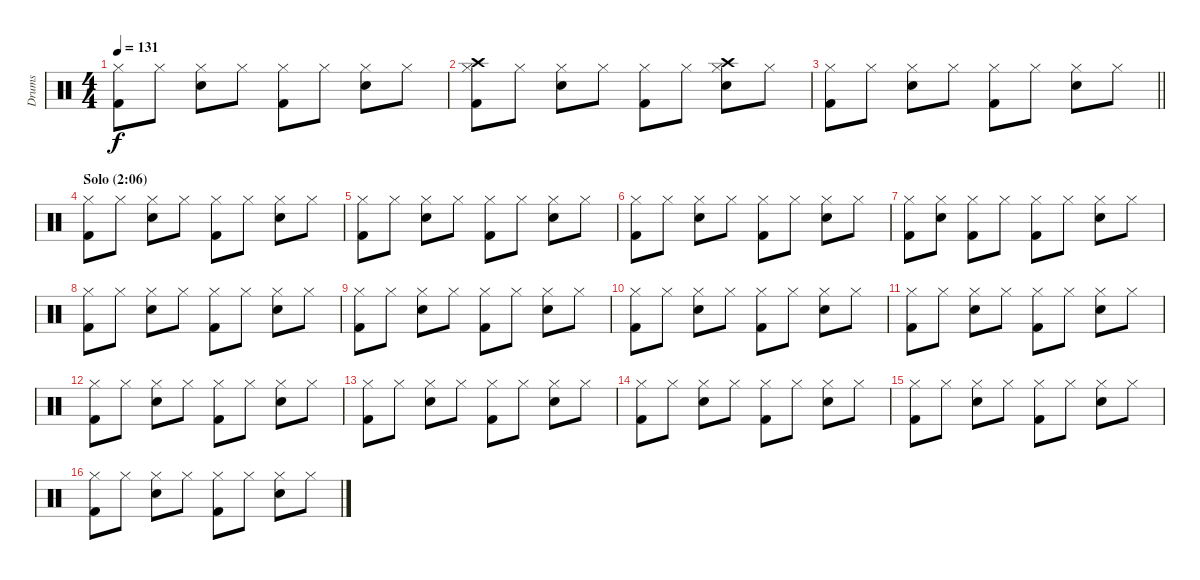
\track ("Drums" "Drums") {instrument percussion}
\staff {score}
\articulation defaults
\ts (4 4)
\tempo 131
\clef neutral
\ks c
("Kick (hit) 2" "Hi-Hat (closed)").8{dy f} "Hi-Hat (closed)".8 ("Hi-Hat (closed)" "Snare (hit) 2").8 "Hi-Hat (closed)".8 ("Hi-Hat (closed)" "Kick (hit) 2").8 "Hi-Hat (closed)".8 ("Hi-Hat (closed)" "Snare (hit) 2").8 "Hi-Hat (closed)".8 |
("Kick (hit) 2" "Hi-Hat (closed)" "Crash high (hit)").8 "Hi-Hat (closed)".8 ("Hi-Hat (closed)" "Snare (hit) 2").8 "Hi-Hat (closed)".8 ("Hi-Hat (closed)" "Kick (hit) 2").8 "Hi-Hat (closed)".8 ("Hi-Hat (closed)" "Snare (hit) 2" "Crash high (hit)").8 "Hi-Hat (closed)".8 |
\barLineRight lightlight
("Kick (hit) 2" "Hi-Hat (closed)").8 "Hi-Hat (closed)".8 ("Hi-Hat (closed)" "Snare (hit) 2").8 "Hi-Hat (closed)".8 ("Hi-Hat (closed)" "Kick (hit) 2").8 "Hi-Hat (closed)".8 ("Hi-Hat (closed)" "Snare (hit) 2").8 "Hi-Hat (closed)".8 |
\section ("" "Solo (2:06)")
("Kick (hit) 2" "Hi-Hat (closed)").8 "Hi-Hat (closed)".8 ("Hi-Hat (closed)" "Snare (hit) 2").8 "Hi-Hat (closed)".8 ("Hi-Hat (closed)" "Kick (hit) 2").8 "Hi-Hat (closed)".8 ("Hi-Hat (closed)" "Snare (hit) 2").8 "Hi-Hat (closed)".8 |
("Kick (hit) 2" "Hi-Hat (closed)").8 "Hi-Hat (closed)".8 ("Hi-Hat (closed)" "Snare (hit) 2").8 "Hi-Hat (closed)".8 ("Hi-Hat (closed)" "Kick (hit) 2").8 "Hi-Hat (closed)".8 ("Hi-Hat (closed)" "Snare (hit) 2").8 "Hi-Hat (closed)".8 |
("Kick (hit) 2" "Hi-Hat (closed)").8 "Hi-Hat (closed)".8 ("Hi-Hat (closed)" "Snare (hit) 2").8 "Hi-Hat (closed)".8 ("Hi-Hat (closed)" "Kick (hit) 2").8 "Hi-Hat (closed)".8 ("Hi-Hat (closed)" "Snare (hit) 2").8 "Hi-Hat (closed)".8 |
("Kick (hit) 2" "Hi-Hat (closed)").8 ("Hi-Hat (closed)" "Snare (hit) 2").8 ("Hi-Hat (closed)" "Kick (hit) 2").8 "Hi-Hat (closed)".8 ("Hi-Hat (closed)" "Kick (hit) 2").8 "Hi-Hat (closed)".8 ("Hi-Hat (closed)" "Snare (hit) 2").8 "Hi-Hat (closed)".8 |
("Kick (hit) 2" "Hi-Hat (closed)").8 "Hi-Hat (closed)".8 ("Hi-Hat (closed)" "Snare (hit) 2").8 "Hi-Hat (closed)".8 ("Hi-Hat (closed)" "Kick (hit) 2").8 "Hi-Hat (closed)".8 ("Hi-Hat (closed)" "Snare (hit) 2").8 "Hi-Hat (closed)".8 |
("Kick (hit) 2" "Hi-Hat (closed)").8 "Hi-Hat (closed)".8 ("Hi-Hat (closed)" "Snare (hit) 2").8 "Hi-Hat (closed)".8 ("Hi-Hat (closed)" "Kick (hit) 2").8 "Hi-Hat (closed)".8 ("Hi-Hat (closed)" "Snare (hit) 2").8 "Hi-Hat (closed)".8 |
("Kick (hit) 2" "Hi-Hat (closed)").8 "Hi-Hat (closed)".8 ("Hi-Hat (closed)" "Snare (hit) 2").8 "Hi-Hat (closed)".8 ("Hi-Hat (closed)" "Kick (hit) 2").8 "Hi-Hat (closed)".8 ("Hi-Hat (closed)" "Snare (hit) 2").8 "Hi-Hat (closed)".8 |
("Kick (hit) 2" "Hi-Hat (closed)").8 "Hi-Hat (closed)".8 ("Hi-Hat (closed)" "Snare (hit) 2").8 "Hi-Hat (closed)".8 ("Hi-Hat (closed)" "Kick (hit) 2").8 "Hi-Hat (closed)".8 ("Hi-Hat (closed)" "Snare (hit) 2").8 "Hi-Hat (closed)".8 |
("Kick (hit) 2" "Hi-Hat (closed)").8 "Hi-Hat (closed)".8 ("Hi-Hat (closed)" "Snare (hit) 2").8 "Hi-Hat (closed)".8 ("Hi-Hat (closed)" "Kick (hit) 2").8 "Hi-Hat (closed)".8 ("Hi-Hat (closed)" "Snare (hit) 2").8 "Hi-Hat (closed)".8 |
("Kick (hit) 2" "Hi-Hat (closed)").8 "Hi-Hat (closed)".8 ("Hi-Hat (closed)" "Snare (hit) 2").8 "Hi-Hat (closed)".8 ("Hi-Hat (closed)" "Kick (hit) 2").8 "Hi-Hat (closed)".8 ("Hi-Hat (closed)" "Snare (hit) 2").8 "Hi-Hat (closed)".8 |
("Kick (hit) 2" "Hi-Hat (closed)").8 "Hi-Hat (closed)".8 ("Hi-Hat (closed)" "Snare (hit) 2").8 "Hi-Hat (closed)".8 ("Hi-Hat (closed)" "Kick (hit) 2").8 "Hi-Hat (closed)".8 ("Hi-Hat (closed)" "Snare (hit) 2").8 "Hi-Hat (closed)".8 |
("Kick (hit) 2" "Hi-Hat (closed)").8 "Hi-Hat (closed)".8 ("Hi-Hat (closed)" "Snare (hit) 2").8 "Hi-Hat (closed)".8 ("Hi-Hat (closed)" "Kick (hit) 2").8 "Hi-Hat (closed)".8 ("Hi-Hat (closed)" "Snare (hit) 2").8 "Hi-Hat (closed)".8 |
("Kick (hit) 2" "Hi-Hat (closed)").8 "Hi-Hat (closed)".8 ("Hi-Hat (closed)" "Snare (hit) 2").8 "Hi-Hat (closed)".8 ("Hi-Hat (closed)" "Kick (hit) 2").8 "Hi-Hat (closed)".8 ("Hi-Hat (closed)" "Snare (hit) 2").8 "Hi-Hat (closed)".8
